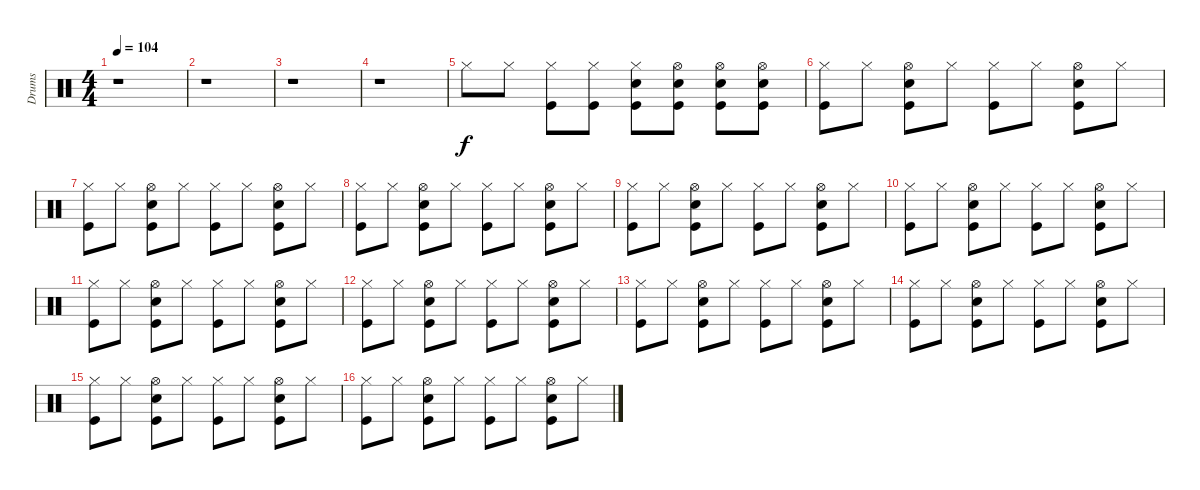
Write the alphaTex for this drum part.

\track ("Drums" "Drums") {instrument percussion}
\staff {score}
\articulation defaults
\ts (4 4)
\tempo 104
\clef neutral
\ks c
r.1{dy f} |
r.1 |
r.1 |
r.1 |
"Hi-Hat (closed)".8 "Hi-Hat (closed)".8 ("Hi-Hat (closed)" "Kick (hit)").8 ("Hi-Hat (closed)" "Kick (hit)").8 ("Snare (hit) 2" "Hi-Hat (closed)" "Kick (hit)").8 ("Snare (hit) 2" "Hi-Hat (open)" "Kick (hit)").8 ("Snare (hit) 2" "Hi-Hat (open)" "Kick (hit)").8 ("Snare (hit) 2" "Hi-Hat (open)" "Kick (hit)").8 |
("Hi-Hat (closed)" "Kick (hit)").8 "Hi-Hat (closed)".8 ("Snare (hit) 2" "Hi-Hat (open)" "Kick (hit)").8 "Hi-Hat (closed)".8 ("Hi-Hat (closed)" "Kick (hit)").8 "Hi-Hat (closed)".8 ("Snare (hit) 2" "Hi-Hat (open)" "Kick (hit)").8 "Hi-Hat (closed)".8 |
("Hi-Hat (closed)" "Kick (hit)").8 "Hi-Hat (closed)".8 ("Snare (hit) 2" "Hi-Hat (open)" "Kick (hit)").8 "Hi-Hat (closed)".8 ("Hi-Hat (closed)" "Kick (hit)").8 "Hi-Hat (closed)".8 ("Snare (hit) 2" "Hi-Hat (open)" "Kick (hit)").8 "Hi-Hat (closed)".8 |
("Hi-Hat (closed)" "Kick (hit)").8 "Hi-Hat (closed)".8 ("Snare (hit) 2" "Hi-Hat (open)" "Kick (hit)").8 "Hi-Hat (closed)".8 ("Hi-Hat (closed)" "Kick (hit)").8 "Hi-Hat (closed)".8 ("Snare (hit) 2" "Hi-Hat (open)" "Kick (hit)").8 "Hi-Hat (closed)".8 |
("Hi-Hat (closed)" "Kick (hit)").8 "Hi-Hat (closed)".8 ("Snare (hit) 2" "Hi-Hat (open)" "Kick (hit)").8 "Hi-Hat (closed)".8 ("Hi-Hat (closed)" "Kick (hit)").8 "Hi-Hat (closed)".8 ("Snare (hit) 2" "Hi-Hat (open)" "Kick (hit)").8 "Hi-Hat (closed)".8 |
("Hi-Hat (closed)" "Kick (hit)").8 "Hi-Hat (closed)".8 ("Snare (hit) 2" "Hi-Hat (open)" "Kick (hit)").8 "Hi-Hat (closed)".8 ("Hi-Hat (closed)" "Kick (hit)").8 "Hi-Hat (closed)".8 ("Snare (hit) 2" "Hi-Hat (open)" "Kick (hit)").8 "Hi-Hat (closed)".8 |
("Hi-Hat (closed)" "Kick (hit)").8 "Hi-Hat (closed)".8 ("Snare (hit) 2" "Hi-Hat (open)" "Kick (hit)").8 "Hi-Hat (closed)".8 ("Hi-Hat (closed)" "Kick (hit)").8 "Hi-Hat (closed)".8 ("Snare (hit) 2" "Hi-Hat (open)" "Kick (hit)").8 "Hi-Hat (closed)".8 |
("Hi-Hat (closed)" "Kick (hit)").8 "Hi-Hat (closed)".8 ("Snare (hit) 2" "Hi-Hat (open)" "Kick (hit)").8 "Hi-Hat (closed)".8 ("Hi-Hat (closed)" "Kick (hit)").8 "Hi-Hat (closed)".8 ("Snare (hit) 2" "Hi-Hat (open)" "Kick (hit)").8 "Hi-Hat (closed)".8 |
("Hi-Hat (closed)" "Kick (hit)").8 "Hi-Hat (closed)".8 ("Snare (hit) 2" "Hi-Hat (open)" "Kick (hit)").8 "Hi-Hat (closed)".8 ("Hi-Hat (closed)" "Kick (hit)").8 "Hi-Hat (closed)".8 ("Snare (hit) 2" "Hi-Hat (open)" "Kick (hit)").8 "Hi-Hat (closed)".8 |
("Hi-Hat (closed)" "Kick (hit)").8 "Hi-Hat (closed)".8 ("Snare (hit) 2" "Hi-Hat (open)" "Kick (hit)").8 "Hi-Hat (closed)".8 ("Hi-Hat (closed)" "Kick (hit)").8 "Hi-Hat (closed)".8 ("Snare (hit) 2" "Hi-Hat (open)" "Kick (hit)").8 "Hi-Hat (closed)".8 |
("Hi-Hat (closed)" "Kick (hit)").8 "Hi-Hat (closed)".8 ("Snare (hit) 2" "Hi-Hat (open)" "Kick (hit)").8 "Hi-Hat (closed)".8 ("Hi-Hat (closed)" "Kick (hit)").8 "Hi-Hat (closed)".8 ("Snare (hit) 2" "Hi-Hat (open)" "Kick (hit)").8 "Hi-Hat (closed)".8 |
("Hi-Hat (closed)" "Kick (hit)").8 "Hi-Hat (closed)".8 ("Snare (hit) 2" "Hi-Hat (open)" "Kick (hit)").8 "Hi-Hat (closed)".8 ("Hi-Hat (closed)" "Kick (hit)").8 "Hi-Hat (closed)".8 ("Snare (hit) 2" "Hi-Hat (open)" "Kick (hit)").8 "Hi-Hat (closed)".8
